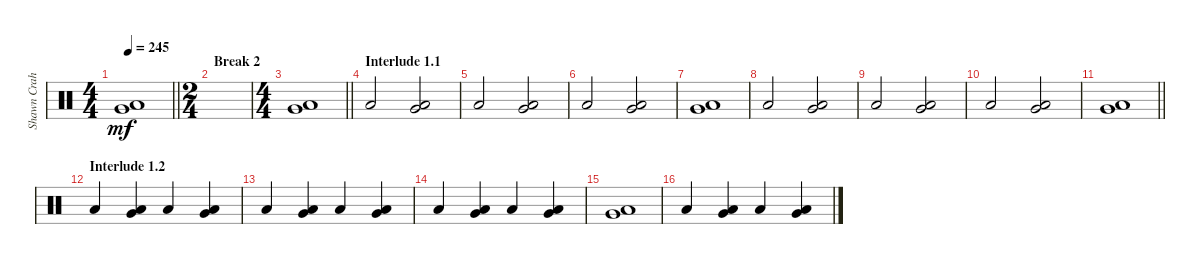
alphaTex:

\track ("Shawn Crahan" "Shawn Crah") {instrument percussion}
\staff {score}
\articulation defaults
\ts (4 4)
\tempo 245
\clef neutral
\barLineRight lightlight
\ks c
("Very Low Tom (hit)" "Low Floor Tom (hit)").1{dy mf} |
\ts (2 4)
\section ("" "Break 2")
|
\ts (4 4)
\barLineRight lightlight
("Very Low Tom (hit)" "Low Floor Tom (hit)").1 |
\section ("" "Interlude 1.1")
"Low Floor Tom (hit)".2 ("Very Low Tom (hit)" "Low Floor Tom (hit)").2 |
"Low Floor Tom (hit)".2 ("Very Low Tom (hit)" "Low Floor Tom (hit)").2 |
"Low Floor Tom (hit)".2 ("Very Low Tom (hit)" "Low Floor Tom (hit)").2 |
("Very Low Tom (hit)" "Low Floor Tom (hit)").1 |
"Low Floor Tom (hit)".2 ("Very Low Tom (hit)" "Low Floor Tom (hit)").2 |
"Low Floor Tom (hit)".2 ("Very Low Tom (hit)" "Low Floor Tom (hit)").2 |
"Low Floor Tom (hit)".2 ("Very Low Tom (hit)" "Low Floor Tom (hit)").2 |
\barLineRight lightlight
("Very Low Tom (hit)" "Low Floor Tom (hit)").1 |
\section ("" "Interlude 1.2")
"Low Floor Tom (hit)".4 ("Very Low Tom (hit)" "Low Floor Tom (hit)").4 "Low Floor Tom (hit)".4 ("Very Low Tom (hit)" "Low Floor Tom (hit)").4 |
"Low Floor Tom (hit)".4 ("Very Low Tom (hit)" "Low Floor Tom (hit)").4 "Low Floor Tom (hit)".4 ("Very Low Tom (hit)" "Low Floor Tom (hit)").4 |
"Low Floor Tom (hit)".4 ("Very Low Tom (hit)" "Low Floor Tom (hit)").4 "Low Floor Tom (hit)".4 ("Very Low Tom (hit)" "Low Floor Tom (hit)").4 |
("Very Low Tom (hit)" "Low Floor Tom (hit)").1 |
"Low Floor Tom (hit)".4 ("Very Low Tom (hit)" "Low Floor Tom (hit)").4 "Low Floor Tom (hit)".4 ("Very Low Tom (hit)" "Low Floor Tom (hit)").4
